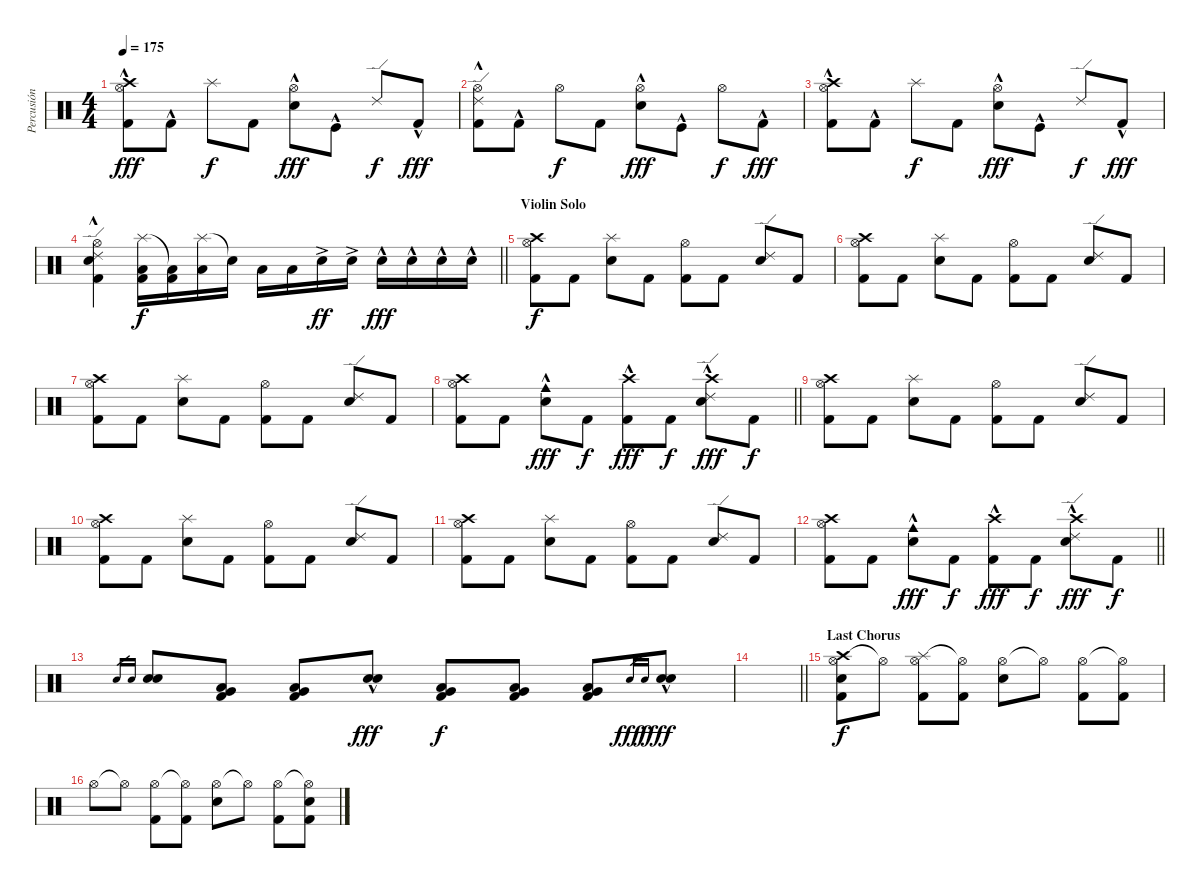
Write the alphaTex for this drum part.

\track ("Percusión" "Percusión") {instrument percussion}
\staff {score}
\articulation defaults
\ts (4 4)
\tempo 175
\clef neutral
\ks c
("Hi-Hat (open)" "Crash high (hit)" "Kick (hit) 2"{hac}).8{dy fff} "Kick (hit) 2"{hac}.8 "Splash (hit)".8{dy f} "Kick (hit) 2".8 ("Hi-Hat (open)" "Electric Snare (hit)"{hac}).8{dy fff} "Kick (hit)"{hac}.8 "Ride (edge) 2".8{dy f} "Kick (hit) 2"{hac}.8{dy fff} |
("Hi-Hat (open)" "Ride (edge) 2" "Kick (hit) 2"{hac}).8 "Kick (hit) 2"{hac}.8 "Hi-Hat (open)".8{dy f} "Kick (hit) 2".8 ("Hi-Hat (open)" "Electric Snare (hit)"{hac}).8{dy fff} "Kick (hit)"{hac}.8 "Hi-Hat (open)".8{dy f} "Kick (hit) 2"{hac}.8{dy fff} |
("Hi-Hat (open)" "Crash high (hit)" "Kick (hit) 2"{hac}).8 "Kick (hit) 2"{hac}.8 "Splash (hit)".8{dy f} "Kick (hit) 2".8 ("Hi-Hat (open)" "Electric Snare (hit)"{hac}).8{dy fff} "Kick (hit)"{hac}.8 "Ride (edge) 2".8{dy f} "Kick (hit) 2"{hac}.8{dy fff} |
\barLineRight lightlight
("Hi-Hat (open)" "Ride (edge) 2" "Electric Snare (hit)" "Kick (hit) 2"{hac}).4 ("Splash (hit)" "Low Floor Tom (hit)" "Kick (hit) 2").16{dy f} ("Low Floor Tom (hit)"{t} "Kick (hit) 2").16 ("Splash (hit)" "Low Floor Tom (hit)").16 "Snare (hit)"{t}.16 "Low Floor Tom (hit)".16 "Low Floor Tom (hit)".16 "Electric Snare (hit)"{ac}.16{dy ff} "Electric Snare (hit)"{ac}.16 "Electric Snare (hit)"{hac}.16{dy fff} "Electric Snare (hit)"{hac}.16 "Electric Snare (hit)"{hac}.16 "Electric Snare (hit)"{hac}.16 |
\section ("" "Violin Solo")
("Hi-Hat (open)" "Crash high (hit)" "Kick (hit) 2").8{dy f} "Kick (hit) 2".8 ("Splash (hit)" "Electric Snare (hit)").8 "Kick (hit) 2".8 ("Hi-Hat (open)" "Kick (hit) 2").8 "Kick (hit) 2".8 ("Ride (edge) 2" "Electric Snare (hit)").8 "Kick (hit) 2".8 |
("Hi-Hat (open)" "Crash high (hit)" "Kick (hit) 2").8 "Kick (hit) 2".8 ("Splash (hit)" "Electric Snare (hit)").8 "Kick (hit) 2".8 ("Hi-Hat (open)" "Kick (hit) 2").8 "Kick (hit) 2".8 ("Ride (edge) 2" "Electric Snare (hit)").8 "Kick (hit) 2".8 |
("Hi-Hat (open)" "Crash high (hit)" "Kick (hit) 2").8 "Kick (hit) 2".8 ("Splash (hit)" "Electric Snare (hit)").8 "Kick (hit) 2".8 ("Hi-Hat (open)" "Kick (hit) 2").8 "Kick (hit) 2".8 ("Ride (edge) 2" "Electric Snare (hit)").8 "Kick (hit) 2".8 |
\barLineRight lightlight
("Hi-Hat (open)" "Crash high (hit)" "Kick (hit) 2").8 "Kick (hit) 2".8 ("Cowbell medium (hit)"{hac} "Electric Snare (hit)").8{dy fff} "Kick (hit) 2".8{dy f} ("Crash high (hit)"{hac} "Kick (hit) 2").8{dy fff} "Kick (hit) 2".8{dy f} ("Crash high (hit)"{hac} "Ride (edge) 2"{hac} "Electric Snare (hit)").8{dy fff} "Kick (hit) 2".8{dy f} |
("Hi-Hat (open)" "Crash high (hit)" "Kick (hit) 2").8 "Kick (hit) 2".8 ("Splash (hit)" "Electric Snare (hit)").8 "Kick (hit) 2".8 ("Hi-Hat (open)" "Kick (hit) 2").8 "Kick (hit) 2".8 ("Ride (edge) 2" "Electric Snare (hit)").8 "Kick (hit) 2".8 |
("Hi-Hat (open)" "Crash high (hit)" "Kick (hit) 2").8 "Kick (hit) 2".8 ("Splash (hit)" "Electric Snare (hit)").8 "Kick (hit) 2".8 ("Hi-Hat (open)" "Kick (hit) 2").8 "Kick (hit) 2".8 ("Ride (edge) 2" "Electric Snare (hit)").8 "Kick (hit) 2".8 |
("Hi-Hat (open)" "Crash high (hit)" "Kick (hit) 2").8 "Kick (hit) 2".8 ("Splash (hit)" "Electric Snare (hit)").8 "Kick (hit) 2".8 ("Hi-Hat (open)" "Kick (hit) 2").8 "Kick (hit) 2".8 ("Ride (edge) 2" "Electric Snare (hit)").8 "Kick (hit) 2".8 |
\barLineRight lightlight
("Hi-Hat (open)" "Crash high (hit)" "Kick (hit) 2").8 "Kick (hit) 2".8 ("Cowbell medium (hit)"{hac} "Electric Snare (hit)").8{dy fff} "Kick (hit) 2".8{dy f} ("Crash high (hit)"{hac} "Kick (hit) 2").8{dy fff} "Kick (hit) 2".8{dy f} ("Crash high (hit)"{hac} "Ride (edge) 2"{hac} "Electric Snare (hit)").8{dy fff} "Kick (hit) 2".8{dy f} |
"Electric Snare (hit)".16{gr} "Electric Snare (hit)".16{gr} ("Electric Snare (hit)" "Electric Snare (hit)").8 ("Very Low Tom (hit)" "Low Floor Tom (hit)" "Kick (hit) 2").8 ("Very Low Tom (hit)" "Low Floor Tom (hit)" "Kick (hit) 2").8 ("Electric Snare (hit)"{hac} "Electric Snare (hit)").8{dy fff} ("Very Low Tom (hit)" "Low Floor Tom (hit)" "Kick (hit) 2").8{dy f} ("Very Low Tom (hit)" "Low Floor Tom (hit)" "Kick (hit) 2").8 ("Very Low Tom (hit)" "Low Floor Tom (hit)" "Kick (hit) 2").8 "Electric Snare (hit)".16{gr dy fff} "Electric Snare (hit)".16{gr dy f} ("Electric Snare (hit)"{hac} "Electric Snare (hit)").8{dy fff} |
\barLineRight lightlight
|
\section ("" "Last Chorus")
("Crash high (hit)" "Hi-Hat (open)" "Electric Snare (hit)" "Kick (hit) 2").8{dy f} "Hi-Hat (open)"{t}.8 ("Splash (hit)" "Hi-Hat (open)" "Kick (hit) 2").8 ("Hi-Hat (open)"{t} "Kick (hit) 2").8 ("Hi-Hat (open)" "Electric Snare (hit)").8 "Hi-Hat (open)"{t}.8 ("Hi-Hat (open)" "Kick (hit) 2").8 ("Hi-Hat (open)"{t} "Kick (hit) 2").8 |
"Hi-Hat (open)".8 "Hi-Hat (open)"{t}.8 ("Hi-Hat (open)" "Kick (hit) 2").8 ("Hi-Hat (open)"{t} "Kick (hit) 2").8 ("Hi-Hat (open)" "Electric Snare (hit)").8 "Hi-Hat (open)"{t}.8 ("Hi-Hat (open)" "Kick (hit) 2").8 ("Hi-Hat (open)"{t} "Electric Snare (hit)" "Kick (hit) 2").8
